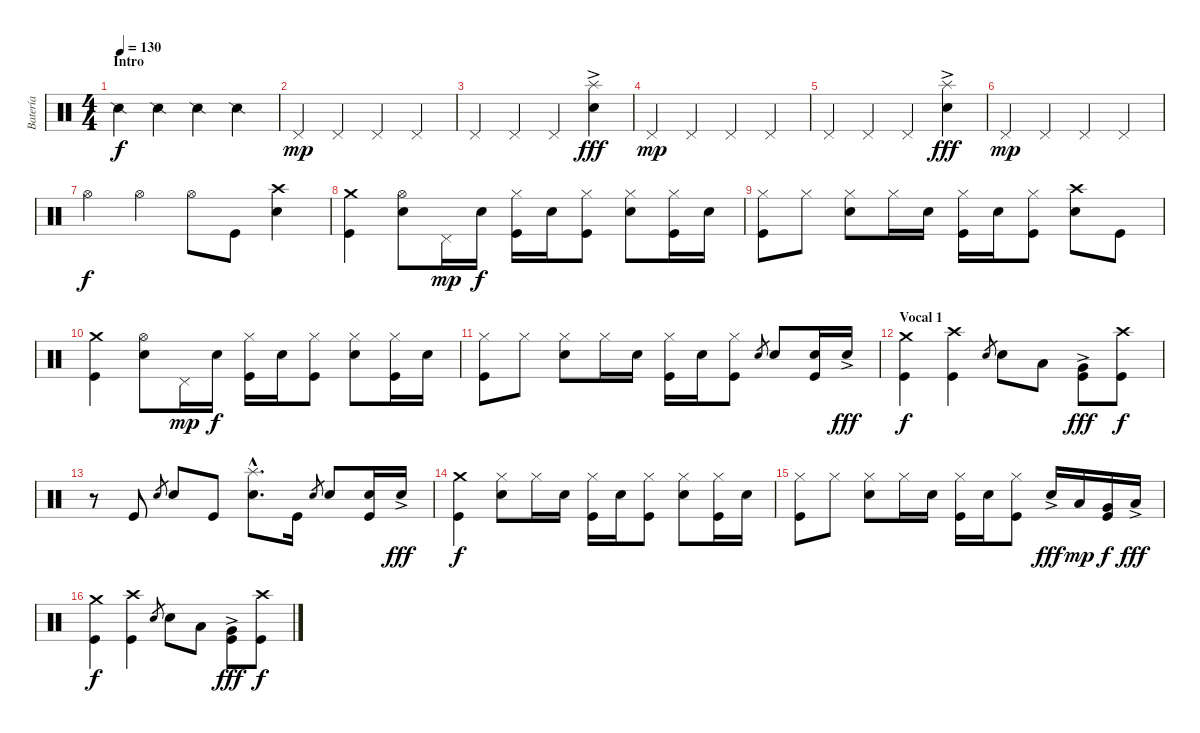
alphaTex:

\track ("Batería" "Batería") {instrument percussion}
\staff {score}
\articulation defaults
\ts (4 4)
\section ("" "Intro")
\tempo 130
\clef neutral
\ks c "Snare (side stick) 2".4{dy f} "Snare (side stick) 2".4 "Snare (side stick) 2".4 "Snare (side stick) 2".4
|
"Pedal Hi-Hat (hit)".4{dy mp} "Pedal Hi-Hat (hit)".4 "Pedal Hi-Hat (hit)".4 "Pedal Hi-Hat (hit)".4 |
"Pedal Hi-Hat (hit)".4 "Pedal Hi-Hat (hit)".4 "Pedal Hi-Hat (hit)".4 ("Electric Snare (hit)" "Splash (hit)"{ac}).4{dy fff} |
"Pedal Hi-Hat (hit)".4{dy mp} "Pedal Hi-Hat (hit)".4 "Pedal Hi-Hat (hit)".4 "Pedal Hi-Hat (hit)".4 |
"Pedal Hi-Hat (hit)".4 "Pedal Hi-Hat (hit)".4 "Pedal Hi-Hat (hit)".4 ("Electric Snare (hit)" "Splash (hit)"{ac}).4{dy fff} |
"Pedal Hi-Hat (hit)".4{dy mp} "Pedal Hi-Hat (hit)".4 "Pedal Hi-Hat (hit)".4 "Pedal Hi-Hat (hit)".4 |
"Hi-Hat (open)".4{dy f} "Hi-Hat (open)".4 "Hi-Hat (open)".8 "Kick (hit)".8 ("Electric Snare (hit)" "Crash high (hit)").4 |
("Kick (hit)" "Crash medium (hit)").4 ("Electric Snare (hit)" "Hi-Hat (open)").8 "Pedal Hi-Hat (hit)".16{dy mp} "Electric Snare (hit)".16{dy f} ("Kick (hit)" "Hi-Hat (closed)").16 "Electric Snare (hit)".16 ("Kick (hit)" "Hi-Hat (closed)").8 ("Electric Snare (hit)" "Hi-Hat (closed)").8 ("Kick (hit)" "Hi-Hat (closed)").16 "Electric Snare (hit)".16 |
("Kick (hit)" "Hi-Hat (closed)").8 "Hi-Hat (closed)".8 ("Electric Snare (hit)" "Hi-Hat (closed)").8 "Hi-Hat (closed)".16 "Electric Snare (hit)".16 ("Kick (hit)" "Hi-Hat (closed)").16 "Electric Snare (hit)".16 ("Kick (hit)" "Hi-Hat (closed)").8 ("Electric Snare (hit)" "Crash high (hit)").8 "Kick (hit)".8 |
("Kick (hit)" "Crash medium (hit)").4 ("Electric Snare (hit)" "Hi-Hat (open)").8 "Pedal Hi-Hat (hit)".16{dy mp} "Electric Snare (hit)".16{dy f} ("Kick (hit)" "Hi-Hat (closed)").16 "Electric Snare (hit)".16 ("Kick (hit)" "Hi-Hat (closed)").8 ("Electric Snare (hit)" "Hi-Hat (closed)").8 ("Kick (hit)" "Hi-Hat (closed)").16 "Electric Snare (hit)".16 |
("Kick (hit)" "Hi-Hat (closed)").8 "Hi-Hat (closed)".8 ("Electric Snare (hit)" "Hi-Hat (closed)").8 "Hi-Hat (closed)".16 "Electric Snare (hit)".16 ("Kick (hit)" "Hi-Hat (closed)").16 "Electric Snare (hit)".16 ("Kick (hit)" "Hi-Hat (closed)").8 "Electric Snare (hit)".8{gr} "Electric Snare (hit)".8 ("Kick (hit)" "Electric Snare (hit)").16 "Electric Snare (hit)"{ac}.16{dy fff} |
\section ("" "Vocal 1")
("Kick (hit)" "Crash medium (hit)").4{dy f} ("Kick (hit)" "Crash high (hit)").4 "Electric Snare (hit)".8{gr} "Electric Snare (hit)".8 "Low Tom (hit)".8 ("Kick (hit)" "Very Low Tom (hit)"{ac}).8{dy fff} ("Kick (hit)" "Crash high (hit)").8{dy f} |
r.8 "Kick (hit)".8 "Electric Snare (hit)".8{gr} "Electric Snare (hit)".8 "Kick (hit)".8 ("Electric Snare (hit)"{hac} "Splash (hit)"{hac}).8{d} "Kick (hit)".16 "Electric Snare (hit)".8{gr} "Electric Snare (hit)".8 ("Kick (hit)" "Electric Snare (hit)").16 "Electric Snare (hit)"{ac}.16{dy fff} |
("Kick (hit)" "Crash medium (hit)").4{dy f} ("Electric Snare (hit)" "Hi-Hat (closed)").8 "Hi-Hat (closed)".16 "Electric Snare (hit)".16 ("Kick (hit)" "Hi-Hat (closed)").16 "Electric Snare (hit)".16 ("Kick (hit)" "Hi-Hat (closed)").8 ("Electric Snare (hit)" "Hi-Hat (closed)").8 ("Kick (hit)" "Hi-Hat (closed)").16 "Electric Snare (hit)".16 |
("Kick (hit)" "Hi-Hat (closed)").8 "Hi-Hat (closed)".8 ("Electric Snare (hit)" "Hi-Hat (closed)").8 "Hi-Hat (closed)".16 "Electric Snare (hit)".16 ("Kick (hit)" "Hi-Hat (closed)").16 "Electric Snare (hit)".16 ("Kick (hit)" "Hi-Hat (closed)").8 "Electric Snare (hit)"{ac}.16{dy fff} "Low Tom (hit)".16{dy mp} ("Kick (hit)" "Very Low Tom (hit)").16{dy f} "Low Floor Tom (hit)"{ac}.16{dy fff} |
("Kick (hit)" "Crash medium (hit)").4{dy f} ("Kick (hit)" "Crash high (hit)").4 "Electric Snare (hit)".8{gr} "Electric Snare (hit)".8 "Low Tom (hit)".8 ("Kick (hit)" "Very Low Tom (hit)"{ac}).8{dy fff} ("Kick (hit)" "Crash high (hit)").8{dy f}
